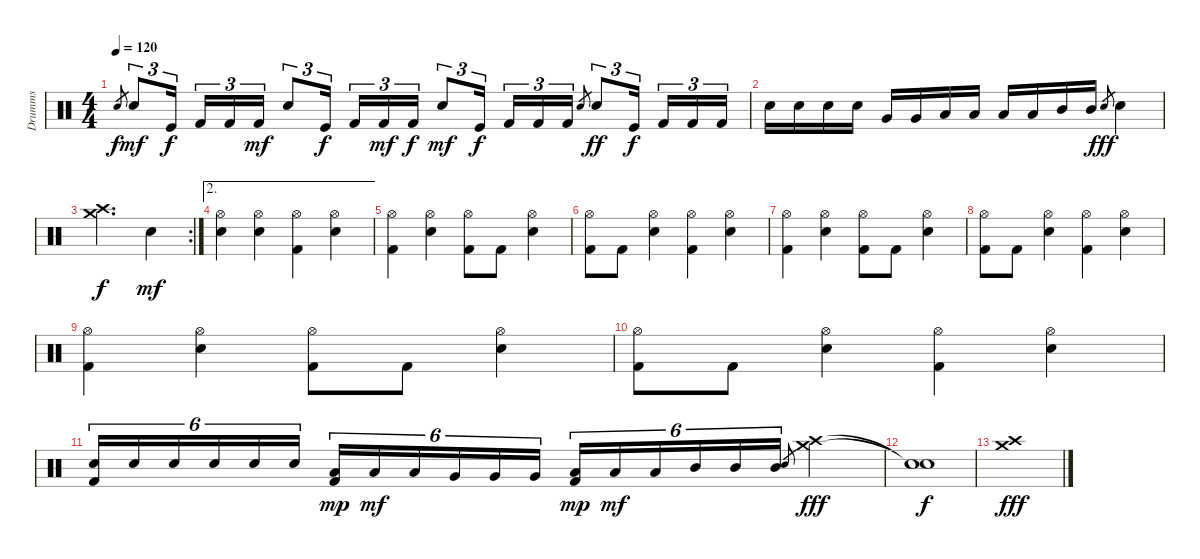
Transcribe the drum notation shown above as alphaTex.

\track ("Drumms" "Drumms") {instrument percussion}
\staff {score}
\articulation defaults
\ts (4 4)
\tempo 120
\clef neutral
\ks c "Electric Snare (hit)".8{gr dy f} "Electric Snare (hit)".8{tu (3 2) dy mf} "Kick (hit)".16{tu (3 2) dy f} "Kick (hit) 2".16{tu (3 2)} "Kick (hit) 2".16{tu (3 2)} "Kick (hit) 2".16{tu (3 2) dy mf} "Electric Snare (hit)".8{tu (3 2)} "Kick (hit)".16{tu (3 2) dy f} "Kick (hit) 2".16{tu (3 2)} "Kick (hit) 2".16{tu (3 2) dy mf} "Kick (hit) 2".16{tu (3 2) dy f} "Electric Snare (hit)".8{tu (3 2) dy mf} "Kick (hit)".16{tu (3 2) dy f} "Kick (hit) 2".16{tu (3 2)} "Kick (hit) 2".16{tu (3 2)} "Kick (hit) 2".16{tu (3 2)} "Electric Snare (hit)".8{gr} "Electric Snare (hit)".8{tu (3 2) dy ff} "Kick (hit)".16{tu (3 2) dy f} "Kick (hit) 2".16{tu (3 2)} "Kick (hit) 2".16{tu (3 2)} "Kick (hit) 2".16{tu (3 2)}
|
"Electric Snare (hit)".16 "Electric Snare (hit)".16 "Electric Snare (hit)".16 "Electric Snare (hit)".16 "Very Low Tom (hit)".16 "Very Low Tom (hit)".16 "Low Tom (hit)".16 "Low Tom (hit)".16 "Low Tom (hit)".16 "Low Tom (hit)".16 "Mid Tom (hit)".16 "Mid Tom (hit)".16 "Electric Snare (hit)".8{gr dy fff} "Electric Snare (hit)".4 |
\rc 2
("Crash medium (hit)" "Crash high (hit)").2{d dy f} "Electric Snare (hit)".4{dy mf} |
\ae 2
\section ("" "")
("Hi-Hat (open)" "Electric Snare (hit)").4 ("Hi-Hat (open)" "Electric Snare (hit)").4 ("Hi-Hat (open)" "Kick (hit) 2").4 ("Hi-Hat (open)" "Electric Snare (hit)").4 |
("Hi-Hat (open)" "Kick (hit) 2").4 ("Hi-Hat (open)" "Electric Snare (hit)").4 ("Hi-Hat (open)" "Kick (hit) 2").8 "Kick (hit) 2".8 ("Hi-Hat (open)" "Electric Snare (hit)").4 |
("Hi-Hat (open)" "Kick (hit) 2").8 "Kick (hit) 2".8 ("Hi-Hat (open)" "Electric Snare (hit)").4 ("Hi-Hat (open)" "Kick (hit) 2").4 ("Hi-Hat (open)" "Electric Snare (hit)").4 |
("Hi-Hat (open)" "Kick (hit) 2").4 ("Hi-Hat (open)" "Electric Snare (hit)").4 ("Hi-Hat (open)" "Kick (hit) 2").8 "Kick (hit) 2".8 ("Hi-Hat (open)" "Electric Snare (hit)").4 |
("Hi-Hat (open)" "Kick (hit) 2").8 "Kick (hit) 2".8 ("Hi-Hat (open)" "Electric Snare (hit)").4 ("Hi-Hat (open)" "Kick (hit) 2").4 ("Hi-Hat (open)" "Electric Snare (hit)").4 |
("Hi-Hat (open)" "Kick (hit) 2").4 ("Hi-Hat (open)" "Electric Snare (hit)").4 ("Hi-Hat (open)" "Kick (hit) 2").8 "Kick (hit) 2".8 ("Hi-Hat (open)" "Electric Snare (hit)").4 |
("Hi-Hat (open)" "Kick (hit) 2").8 "Kick (hit) 2".8 ("Hi-Hat (open)" "Electric Snare (hit)").4 ("Hi-Hat (open)" "Kick (hit) 2").4 ("Hi-Hat (open)" "Electric Snare (hit)").4 |
("Electric Snare (hit)" "Kick (hit) 2").16{tu (6 4)} "Electric Snare (hit)".16{tu (6 4)} "Electric Snare (hit)".16{tu (6 4)} "Electric Snare (hit)".16{tu (6 4)} "Electric Snare (hit)".16{tu (6 4)} "Electric Snare (hit)".16{tu (6 4)} ("Low Floor Tom (hit)" "Kick (hit) 2").16{tu (6 4) dy mp} "Low Floor Tom (hit)".16{tu (6 4) dy mf} "Low Floor Tom (hit)".16{tu (6 4)} "Very Low Tom (hit)".16{tu (6 4)} "Very Low Tom (hit)".16{tu (6 4)} "Very Low Tom (hit)".16{tu (6 4)} ("Low Tom (hit)" "Kick (hit) 2").16{tu (6 4) dy mp} "Low Tom (hit)".16{tu (6 4) dy mf} "Low Tom (hit)".16{tu (6 4)} "Mid Tom (hit)".16{tu (6 4)} "Mid Tom (hit)".16{tu (6 4)} "Mid Tom (hit)".16{tu (6 4)} "Electric Snare (hit)".8{gr} ("Crash high (hit)" "Crash medium (hit)").4{dy fff} |
("Snare (hit)"{t} "Snare (hit)"{t}).1{dy f} |
("Crash high (hit)" "Crash medium (hit)").1{dy fff}
